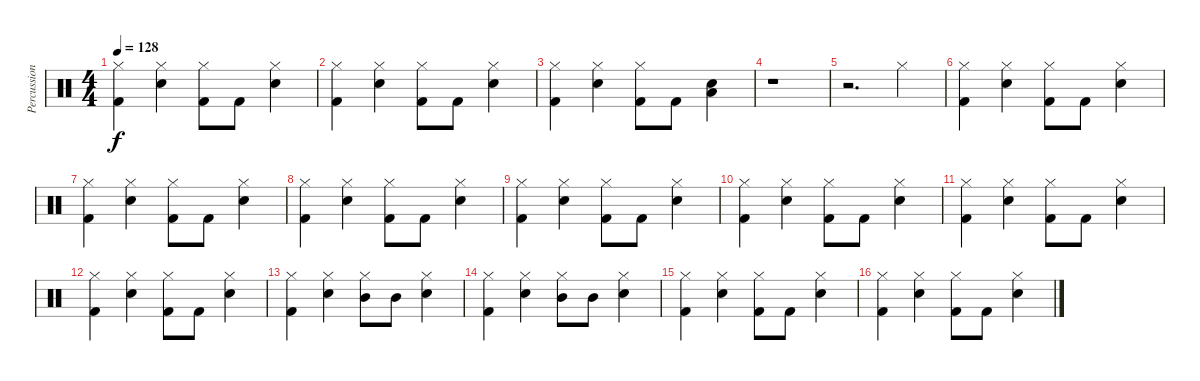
\track ("Percussion" "Percussion") {instrument percussion}
\staff {score}
\articulation defaults
\ts (4 4)
\tempo 128
\clef neutral
\ks c
("Hi-Hat (closed)" "Kick (hit) 2").4{dy f} ("Hi-Hat (closed)" "Snare (hit) 2").4 ("Hi-Hat (closed)" "Kick (hit) 2").8 "Kick (hit) 2".8 ("Hi-Hat (closed)" "Snare (hit) 2").4 |
("Hi-Hat (closed)" "Kick (hit) 2").4 ("Hi-Hat (closed)" "Snare (hit) 2").4 ("Hi-Hat (closed)" "Kick (hit) 2").8 "Kick (hit) 2".8 ("Hi-Hat (closed)" "Snare (hit) 2").4 |
("Hi-Hat (closed)" "Kick (hit) 2").4 ("Hi-Hat (closed)" "Snare (hit) 2").4 ("Hi-Hat (closed)" "Kick (hit) 2").8 "Kick (hit) 2".8 ("Low Tom (hit)" "Snare (hit) 2").4 |
r.1 |
r.2{d} "Hi-Hat (closed)".4 |
("Hi-Hat (closed)" "Kick (hit) 2").4 ("Hi-Hat (closed)" "Snare (hit) 2").4 ("Hi-Hat (closed)" "Kick (hit) 2").8 "Kick (hit) 2".8 ("Hi-Hat (closed)" "Snare (hit) 2").4 |
("Hi-Hat (closed)" "Kick (hit) 2").4 ("Hi-Hat (closed)" "Snare (hit) 2").4 ("Hi-Hat (closed)" "Kick (hit) 2").8 "Kick (hit) 2".8 ("Hi-Hat (closed)" "Snare (hit) 2").4 |
("Hi-Hat (closed)" "Kick (hit) 2").4 ("Hi-Hat (closed)" "Snare (hit) 2").4 ("Hi-Hat (closed)" "Kick (hit) 2").8 "Kick (hit) 2".8 ("Hi-Hat (closed)" "Snare (hit) 2").4 |
("Hi-Hat (closed)" "Kick (hit) 2").4 ("Hi-Hat (closed)" "Snare (hit) 2").4 ("Hi-Hat (closed)" "Kick (hit) 2").8 "Kick (hit) 2".8 ("Hi-Hat (closed)" "Snare (hit) 2").4 |
("Hi-Hat (closed)" "Kick (hit) 2").4 ("Hi-Hat (closed)" "Snare (hit) 2").4 ("Hi-Hat (closed)" "Kick (hit) 2").8 "Kick (hit) 2".8 ("Hi-Hat (closed)" "Snare (hit) 2").4 |
("Hi-Hat (closed)" "Kick (hit) 2").4 ("Hi-Hat (closed)" "Snare (hit) 2").4 ("Hi-Hat (closed)" "Kick (hit) 2").8 "Kick (hit) 2".8 ("Hi-Hat (closed)" "Snare (hit) 2").4 |
("Hi-Hat (closed)" "Kick (hit) 2").4 ("Hi-Hat (closed)" "Snare (hit) 2").4 ("Hi-Hat (closed)" "Kick (hit) 2").8 "Kick (hit) 2".8 ("Hi-Hat (closed)" "Snare (hit) 2").4 |
("Hi-Hat (closed)" "Kick (hit) 2").4 ("Hi-Hat (closed)" "Snare (hit) 2").4 ("Hi-Hat (closed)" "Mid Tom (hit)").8 "Mid Tom (hit)".8 ("Hi-Hat (closed)" "Snare (hit) 2").4 |
("Hi-Hat (closed)" "Kick (hit) 2").4 ("Hi-Hat (closed)" "Snare (hit) 2").4 ("Hi-Hat (closed)" "Mid Tom (hit)").8 "Mid Tom (hit)".8 ("Hi-Hat (closed)" "Snare (hit) 2").4 |
("Hi-Hat (closed)" "Kick (hit) 2").4 ("Hi-Hat (closed)" "Snare (hit) 2").4 ("Hi-Hat (closed)" "Kick (hit) 2").8 "Kick (hit) 2".8 ("Hi-Hat (closed)" "Snare (hit) 2").4 |
("Hi-Hat (closed)" "Kick (hit) 2").4 ("Hi-Hat (closed)" "Snare (hit) 2").4 ("Hi-Hat (closed)" "Kick (hit) 2").8 "Kick (hit) 2".8 ("Hi-Hat (closed)" "Snare (hit) 2").4
